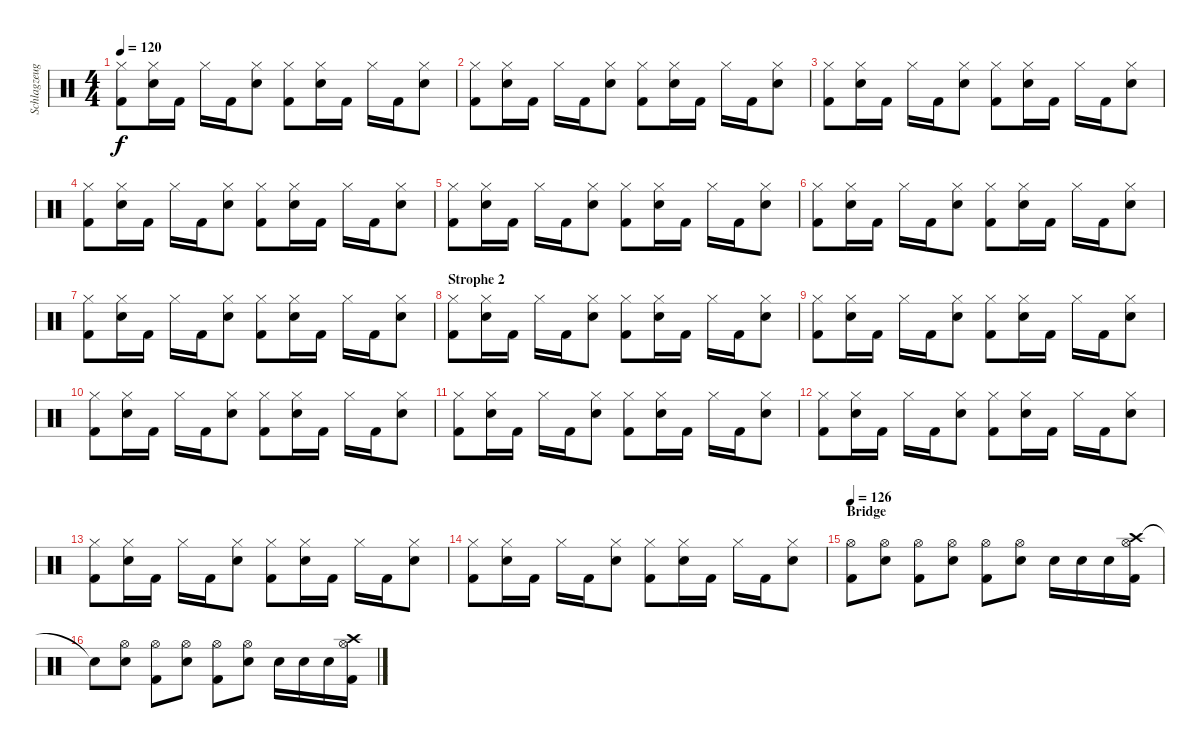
\track ("Schlagzeug - Bela" "Schlagzeug") {instrument percussion}
\staff {score}
\articulation defaults
\ts (4 4)
\tempo 120
\clef neutral
\ks c
("Kick (hit) 2" "Hi-Hat (closed)").8{dy f} ("Snare (hit) 2" "Hi-Hat (closed)").16 "Kick (hit) 2".16 "Hi-Hat (closed)".16 "Kick (hit) 2".16 ("Snare (hit) 2" "Hi-Hat (closed)").8 ("Kick (hit) 2" "Hi-Hat (closed)").8 ("Snare (hit) 2" "Hi-Hat (closed)").16 "Kick (hit) 2".16 "Hi-Hat (closed)".16 "Kick (hit) 2".16 ("Snare (hit) 2" "Hi-Hat (closed)").8 |
("Kick (hit) 2" "Hi-Hat (closed)").8 ("Snare (hit) 2" "Hi-Hat (closed)").16 "Kick (hit) 2".16 "Hi-Hat (closed)".16 "Kick (hit) 2".16 ("Snare (hit) 2" "Hi-Hat (closed)").8 ("Kick (hit) 2" "Hi-Hat (closed)").8 ("Snare (hit) 2" "Hi-Hat (closed)").16 "Kick (hit) 2".16 "Hi-Hat (closed)".16 "Kick (hit) 2".16 ("Snare (hit) 2" "Hi-Hat (closed)").8 |
("Kick (hit) 2" "Hi-Hat (closed)").8 ("Snare (hit) 2" "Hi-Hat (closed)").16 "Kick (hit) 2".16 "Hi-Hat (closed)".16 "Kick (hit) 2".16 ("Snare (hit) 2" "Hi-Hat (closed)").8 ("Kick (hit) 2" "Hi-Hat (closed)").8 ("Snare (hit) 2" "Hi-Hat (closed)").16 "Kick (hit) 2".16 "Hi-Hat (closed)".16 "Kick (hit) 2".16 ("Snare (hit) 2" "Hi-Hat (closed)").8 |
("Kick (hit) 2" "Hi-Hat (closed)").8 ("Snare (hit) 2" "Hi-Hat (closed)").16 "Kick (hit) 2".16 "Hi-Hat (closed)".16 "Kick (hit) 2".16 ("Snare (hit) 2" "Hi-Hat (closed)").8 ("Kick (hit) 2" "Hi-Hat (closed)").8 ("Snare (hit) 2" "Hi-Hat (closed)").16 "Kick (hit) 2".16 "Hi-Hat (closed)".16 "Kick (hit) 2".16 ("Snare (hit) 2" "Hi-Hat (closed)").8 |
("Kick (hit) 2" "Hi-Hat (closed)").8 ("Snare (hit) 2" "Hi-Hat (closed)").16 "Kick (hit) 2".16 "Hi-Hat (closed)".16 "Kick (hit) 2".16 ("Snare (hit) 2" "Hi-Hat (closed)").8 ("Kick (hit) 2" "Hi-Hat (closed)").8 ("Snare (hit) 2" "Hi-Hat (closed)").16 "Kick (hit) 2".16 "Hi-Hat (closed)".16 "Kick (hit) 2".16 ("Snare (hit) 2" "Hi-Hat (closed)").8 |
("Kick (hit) 2" "Hi-Hat (closed)").8 ("Snare (hit) 2" "Hi-Hat (closed)").16 "Kick (hit) 2".16 "Hi-Hat (closed)".16 "Kick (hit) 2".16 ("Snare (hit) 2" "Hi-Hat (closed)").8 ("Kick (hit) 2" "Hi-Hat (closed)").8 ("Snare (hit) 2" "Hi-Hat (closed)").16 "Kick (hit) 2".16 "Hi-Hat (closed)".16 "Kick (hit) 2".16 ("Snare (hit) 2" "Hi-Hat (closed)").8 |
("Kick (hit) 2" "Hi-Hat (closed)").8 ("Snare (hit) 2" "Hi-Hat (closed)").16 "Kick (hit) 2".16 "Hi-Hat (closed)".16 "Kick (hit) 2".16 ("Snare (hit) 2" "Hi-Hat (closed)").8 ("Kick (hit) 2" "Hi-Hat (closed)").8 ("Snare (hit) 2" "Hi-Hat (closed)").16 "Kick (hit) 2".16 "Hi-Hat (closed)".16 "Kick (hit) 2".16 ("Snare (hit) 2" "Hi-Hat (closed)").8 |
\section ("" "Strophe 2")
("Kick (hit) 2" "Hi-Hat (closed)").8 ("Snare (hit) 2" "Hi-Hat (closed)").16 "Kick (hit) 2".16 "Hi-Hat (closed)".16 "Kick (hit) 2".16 ("Snare (hit) 2" "Hi-Hat (closed)").8 ("Kick (hit) 2" "Hi-Hat (closed)").8 ("Snare (hit) 2" "Hi-Hat (closed)").16 "Kick (hit) 2".16 "Hi-Hat (closed)".16 "Kick (hit) 2".16 ("Snare (hit) 2" "Hi-Hat (closed)").8 |
("Kick (hit) 2" "Hi-Hat (closed)").8 ("Snare (hit) 2" "Hi-Hat (closed)").16 "Kick (hit) 2".16 "Hi-Hat (closed)".16 "Kick (hit) 2".16 ("Snare (hit) 2" "Hi-Hat (closed)").8 ("Kick (hit) 2" "Hi-Hat (closed)").8 ("Snare (hit) 2" "Hi-Hat (closed)").16 "Kick (hit) 2".16 "Hi-Hat (closed)".16 "Kick (hit) 2".16 ("Snare (hit) 2" "Hi-Hat (closed)").8 |
("Kick (hit) 2" "Hi-Hat (closed)").8 ("Snare (hit) 2" "Hi-Hat (closed)").16 "Kick (hit) 2".16 "Hi-Hat (closed)".16 "Kick (hit) 2".16 ("Snare (hit) 2" "Hi-Hat (closed)").8 ("Kick (hit) 2" "Hi-Hat (closed)").8 ("Snare (hit) 2" "Hi-Hat (closed)").16 "Kick (hit) 2".16 "Hi-Hat (closed)".16 "Kick (hit) 2".16 ("Snare (hit) 2" "Hi-Hat (closed)").8 |
("Kick (hit) 2" "Hi-Hat (closed)").8 ("Snare (hit) 2" "Hi-Hat (closed)").16 "Kick (hit) 2".16 "Hi-Hat (closed)".16 "Kick (hit) 2".16 ("Snare (hit) 2" "Hi-Hat (closed)").8 ("Kick (hit) 2" "Hi-Hat (closed)").8 ("Snare (hit) 2" "Hi-Hat (closed)").16 "Kick (hit) 2".16 "Hi-Hat (closed)".16 "Kick (hit) 2".16 ("Snare (hit) 2" "Hi-Hat (closed)").8 |
("Kick (hit) 2" "Hi-Hat (closed)").8 ("Snare (hit) 2" "Hi-Hat (closed)").16 "Kick (hit) 2".16 "Hi-Hat (closed)".16 "Kick (hit) 2".16 ("Snare (hit) 2" "Hi-Hat (closed)").8 ("Kick (hit) 2" "Hi-Hat (closed)").8 ("Snare (hit) 2" "Hi-Hat (closed)").16 "Kick (hit) 2".16 "Hi-Hat (closed)".16 "Kick (hit) 2".16 ("Snare (hit) 2" "Hi-Hat (closed)").8 |
("Kick (hit) 2" "Hi-Hat (closed)").8 ("Snare (hit) 2" "Hi-Hat (closed)").16 "Kick (hit) 2".16 "Hi-Hat (closed)".16 "Kick (hit) 2".16 ("Snare (hit) 2" "Hi-Hat (closed)").8 ("Kick (hit) 2" "Hi-Hat (closed)").8 ("Snare (hit) 2" "Hi-Hat (closed)").16 "Kick (hit) 2".16 "Hi-Hat (closed)".16 "Kick (hit) 2".16 ("Snare (hit) 2" "Hi-Hat (closed)").8 |
("Kick (hit) 2" "Hi-Hat (closed)").8 ("Snare (hit) 2" "Hi-Hat (closed)").16 "Kick (hit) 2".16 "Hi-Hat (closed)".16 "Kick (hit) 2".16 ("Snare (hit) 2" "Hi-Hat (closed)").8 ("Kick (hit) 2" "Hi-Hat (closed)").8 ("Snare (hit) 2" "Hi-Hat (closed)").16 "Kick (hit) 2".16 "Hi-Hat (closed)".16 "Kick (hit) 2".16 ("Snare (hit) 2" "Hi-Hat (closed)").8 |
\section ("" "Bridge")
\tempo 126
("Kick (hit) 2" "Hi-Hat (open)").8 ("Snare (hit) 2" "Hi-Hat (open)").8 ("Kick (hit) 2" "Hi-Hat (open)").8 ("Snare (hit) 2" "Hi-Hat (open)").8 ("Kick (hit) 2" "Hi-Hat (open)").8 ("Snare (hit) 2" "Hi-Hat (open)").8 "Snare (hit) 2".16 "Snare (hit) 2".16 "Snare (hit) 2".16 ("Crash high (hit)" "Kick (hit) 2" "Hi-Hat (open)").16 |
"Snare (hit)"{t}.8 ("Snare (hit) 2" "Hi-Hat (open)").8 ("Kick (hit) 2" "Hi-Hat (open)").8 ("Snare (hit) 2" "Hi-Hat (open)").8 ("Kick (hit) 2" "Hi-Hat (open)").8 ("Snare (hit) 2" "Hi-Hat (open)").8 "Snare (hit) 2".16 "Snare (hit) 2".16 "Snare (hit) 2".16 ("Crash high (hit)" "Kick (hit) 2" "Hi-Hat (open)").16
